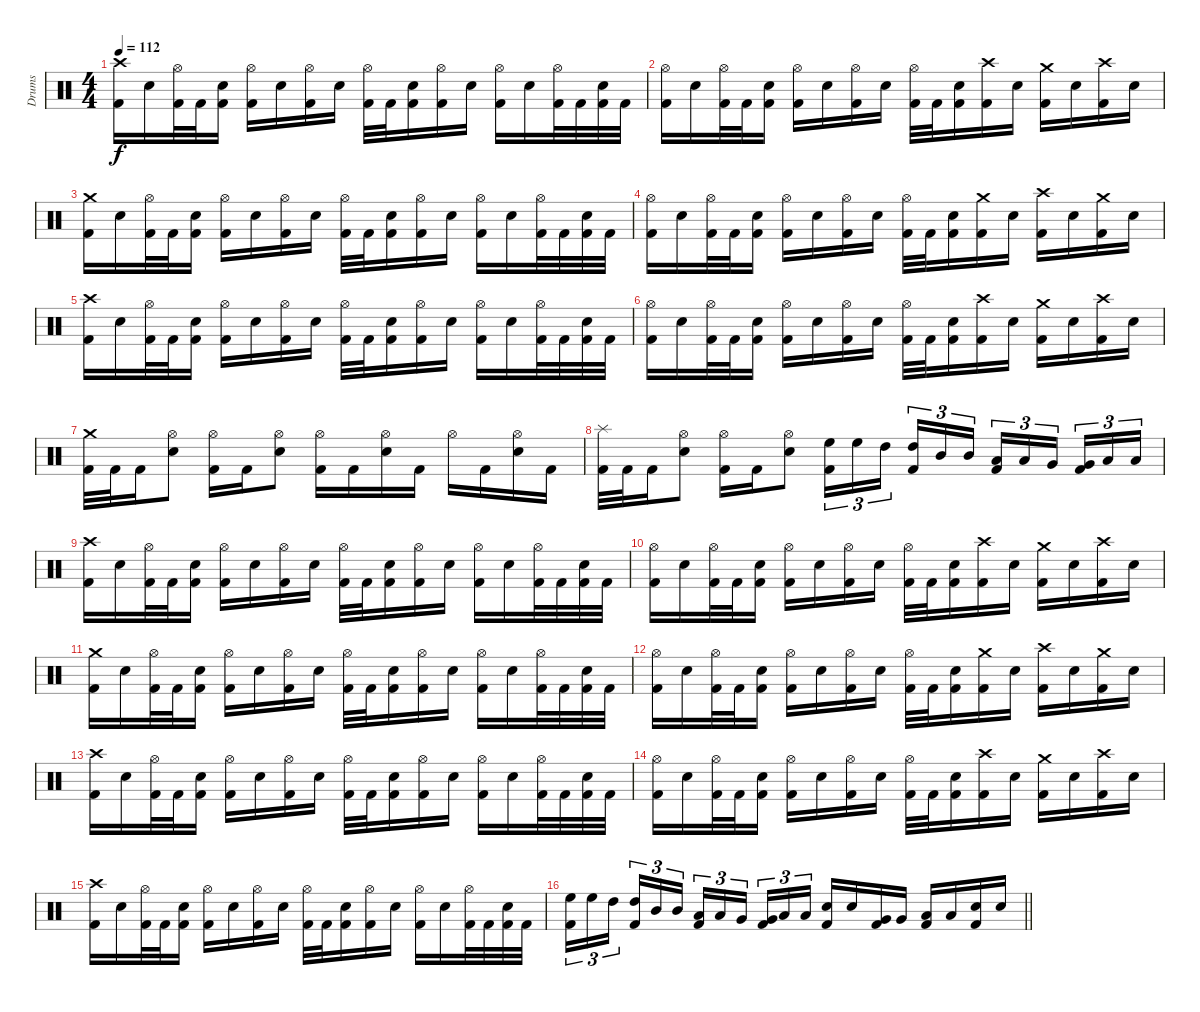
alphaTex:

\track ("Drums" "Drums") {instrument percussion}
\staff {score}
\articulation defaults
\ts (4 4)
\tempo 112
\clef neutral
\ks c
("Crash high (hit)" "Kick (hit) 2").16{dy f} "Electric Snare (hit)".16 ("Hi-Hat (open)" "Kick (hit) 2").32 "Kick (hit) 2".32 ("Electric Snare (hit)" "Kick (hit) 2").16 ("Hi-Hat (open)" "Kick (hit) 2").16 "Electric Snare (hit)".16 ("Hi-Hat (open)" "Kick (hit) 2").16 "Electric Snare (hit)".16 ("Hi-Hat (open)" "Kick (hit) 2").32 "Kick (hit) 2".32 ("Electric Snare (hit)" "Kick (hit) 2").16 ("Hi-Hat (open)" "Kick (hit) 2").16 "Electric Snare (hit)".16 ("Hi-Hat (open)" "Kick (hit) 2").16 "Electric Snare (hit)".16 ("Hi-Hat (open)" "Kick (hit) 2").32 "Kick (hit) 2".32 ("Electric Snare (hit)" "Kick (hit) 2").32 "Kick (hit) 2".32 |
("Hi-Hat (open)" "Kick (hit) 2").16 "Electric Snare (hit)".16 ("Hi-Hat (open)" "Kick (hit) 2").32 "Kick (hit) 2".32 ("Electric Snare (hit)" "Kick (hit) 2").16 ("Hi-Hat (open)" "Kick (hit) 2").16 "Electric Snare (hit)".16 ("Hi-Hat (open)" "Kick (hit) 2").16 "Electric Snare (hit)".16 ("Hi-Hat (open)" "Kick (hit) 2").32 "Kick (hit) 2".32 ("Electric Snare (hit)" "Kick (hit) 2").16 ("Crash high (hit)" "Kick (hit) 2").16 "Electric Snare (hit)".16 ("Crash medium (hit)" "Kick (hit) 2").16 "Electric Snare (hit)".16 ("Crash high (hit)" "Kick (hit) 2").16 "Electric Snare (hit)".16 |
("Crash medium (hit)" "Kick (hit) 2").16 "Electric Snare (hit)".16 ("Hi-Hat (open)" "Kick (hit) 2").32 "Kick (hit) 2".32 ("Electric Snare (hit)" "Kick (hit) 2").16 ("Hi-Hat (open)" "Kick (hit) 2").16 "Electric Snare (hit)".16 ("Hi-Hat (open)" "Kick (hit) 2").16 "Electric Snare (hit)".16 ("Hi-Hat (open)" "Kick (hit) 2").32 "Kick (hit) 2".32 ("Electric Snare (hit)" "Kick (hit) 2").16 ("Hi-Hat (open)" "Kick (hit) 2").16 "Electric Snare (hit)".16 ("Hi-Hat (open)" "Kick (hit) 2").16 "Electric Snare (hit)".16 ("Hi-Hat (open)" "Kick (hit) 2").32 "Kick (hit) 2".32 ("Electric Snare (hit)" "Kick (hit) 2").32 "Kick (hit) 2".32 |
("Hi-Hat (open)" "Kick (hit) 2").16 "Electric Snare (hit)".16 ("Hi-Hat (open)" "Kick (hit) 2").32 "Kick (hit) 2".32 ("Electric Snare (hit)" "Kick (hit) 2").16 ("Hi-Hat (open)" "Kick (hit) 2").16 "Electric Snare (hit)".16 ("Hi-Hat (open)" "Kick (hit) 2").16 "Electric Snare (hit)".16 ("Hi-Hat (open)" "Kick (hit) 2").32 "Kick (hit) 2".32 ("Electric Snare (hit)" "Kick (hit) 2").16 ("Crash medium (hit)" "Kick (hit) 2").16 "Electric Snare (hit)".16 ("Crash high (hit)" "Kick (hit) 2").16 "Electric Snare (hit)".16 ("Crash medium (hit)" "Kick (hit) 2").16 "Electric Snare (hit)".16 |
("Crash high (hit)" "Kick (hit) 2").16 "Electric Snare (hit)".16 ("Hi-Hat (open)" "Kick (hit) 2").32 "Kick (hit) 2".32 ("Electric Snare (hit)" "Kick (hit) 2").16 ("Hi-Hat (open)" "Kick (hit) 2").16 "Electric Snare (hit)".16 ("Hi-Hat (open)" "Kick (hit) 2").16 "Electric Snare (hit)".16 ("Hi-Hat (open)" "Kick (hit) 2").32 "Kick (hit) 2".32 ("Electric Snare (hit)" "Kick (hit) 2").16 ("Hi-Hat (open)" "Kick (hit) 2").16 "Electric Snare (hit)".16 ("Hi-Hat (open)" "Kick (hit) 2").16 "Electric Snare (hit)".16 ("Hi-Hat (open)" "Kick (hit) 2").32 "Kick (hit) 2".32 ("Electric Snare (hit)" "Kick (hit) 2").32 "Kick (hit) 2".32 |
("Hi-Hat (open)" "Kick (hit) 2").16 "Electric Snare (hit)".16 ("Hi-Hat (open)" "Kick (hit) 2").32 "Kick (hit) 2".32 ("Electric Snare (hit)" "Kick (hit) 2").16 ("Hi-Hat (open)" "Kick (hit) 2").16 "Electric Snare (hit)".16 ("Hi-Hat (open)" "Kick (hit) 2").16 "Electric Snare (hit)".16 ("Hi-Hat (open)" "Kick (hit) 2").32 "Kick (hit) 2".32 ("Electric Snare (hit)" "Kick (hit) 2").16 ("Crash high (hit)" "Kick (hit) 2").16 "Electric Snare (hit)".16 ("Crash medium (hit)" "Kick (hit) 2").16 "Electric Snare (hit)".16 ("Crash high (hit)" "Kick (hit) 2").16 "Electric Snare (hit)".16 |
("Crash medium (hit)" "Kick (hit) 2").32 "Kick (hit) 2".32 "Kick (hit) 2".16 ("Hi-Hat (open)" "Electric Snare (hit)").8 ("Hi-Hat (open)" "Kick (hit) 2").16 "Kick (hit) 2".16 ("Hi-Hat (open)" "Electric Snare (hit)").8 ("Hi-Hat (open)" "Kick (hit) 2").16 "Kick (hit) 2".16 ("Hi-Hat (open)" "Electric Snare (hit)").16 "Kick (hit) 2".16 "Hi-Hat (open)".16 "Kick (hit) 2".16 ("Hi-Hat (open)" "Electric Snare (hit)").16 "Kick (hit) 2".16 |
("Splash (hit)" "Kick (hit) 2").32 "Kick (hit) 2".32 "Kick (hit) 2".16 ("Hi-Hat (open)" "Electric Snare (hit)").8 ("Hi-Hat (open)" "Kick (hit) 2").16 "Kick (hit) 2".16 ("Hi-Hat (open)" "Electric Snare (hit)").8 ("High Floor Tom (hit)" "Kick (hit) 2").16{tu (3 2)} "High Floor Tom (hit)".16{tu (3 2)} "High Tom (hit)".16{tu (3 2) beam splitsecondary} ("High Tom (hit)" "Kick (hit) 2").16{tu (3 2)} "Mid Tom (hit)".16{tu (3 2)} "Mid Tom (hit)".16{tu (3 2)} ("Low Tom (hit)" "Kick (hit) 2").16{tu (3 2)} "Low Tom (hit)".16{tu (3 2)} "Very Low Tom (hit)".16{tu (3 2) beam splitsecondary} ("Very Low Tom (hit)" "Kick (hit) 2").16{tu (3 2)} "Low Floor Tom (hit)".16{tu (3 2)} "Low Floor Tom (hit)".16{tu (3 2)} |
("Crash high (hit)" "Kick (hit) 2").16 "Electric Snare (hit)".16 ("Hi-Hat (open)" "Kick (hit) 2").32 "Kick (hit) 2".32 ("Electric Snare (hit)" "Kick (hit) 2").16 ("Hi-Hat (open)" "Kick (hit) 2").16 "Electric Snare (hit)".16 ("Hi-Hat (open)" "Kick (hit) 2").16 "Electric Snare (hit)".16 ("Hi-Hat (open)" "Kick (hit) 2").32 "Kick (hit) 2".32 ("Electric Snare (hit)" "Kick (hit) 2").16 ("Hi-Hat (open)" "Kick (hit) 2").16 "Electric Snare (hit)".16 ("Hi-Hat (open)" "Kick (hit) 2").16 "Electric Snare (hit)".16 ("Hi-Hat (open)" "Kick (hit) 2").32 "Kick (hit) 2".32 ("Electric Snare (hit)" "Kick (hit) 2").32 "Kick (hit) 2".32 |
("Hi-Hat (open)" "Kick (hit) 2").16 "Electric Snare (hit)".16 ("Hi-Hat (open)" "Kick (hit) 2").32 "Kick (hit) 2".32 ("Electric Snare (hit)" "Kick (hit) 2").16 ("Hi-Hat (open)" "Kick (hit) 2").16 "Electric Snare (hit)".16 ("Hi-Hat (open)" "Kick (hit) 2").16 "Electric Snare (hit)".16 ("Hi-Hat (open)" "Kick (hit) 2").32 "Kick (hit) 2".32 ("Electric Snare (hit)" "Kick (hit) 2").16 ("Crash high (hit)" "Kick (hit) 2").16 "Electric Snare (hit)".16 ("Crash medium (hit)" "Kick (hit) 2").16 "Electric Snare (hit)".16 ("Crash high (hit)" "Kick (hit) 2").16 "Electric Snare (hit)".16 |
("Crash medium (hit)" "Kick (hit) 2").16 "Electric Snare (hit)".16 ("Hi-Hat (open)" "Kick (hit) 2").32 "Kick (hit) 2".32 ("Electric Snare (hit)" "Kick (hit) 2").16 ("Hi-Hat (open)" "Kick (hit) 2").16 "Electric Snare (hit)".16 ("Hi-Hat (open)" "Kick (hit) 2").16 "Electric Snare (hit)".16 ("Hi-Hat (open)" "Kick (hit) 2").32 "Kick (hit) 2".32 ("Electric Snare (hit)" "Kick (hit) 2").16 ("Hi-Hat (open)" "Kick (hit) 2").16 "Electric Snare (hit)".16 ("Hi-Hat (open)" "Kick (hit) 2").16 "Electric Snare (hit)".16 ("Hi-Hat (open)" "Kick (hit) 2").32 "Kick (hit) 2".32 ("Electric Snare (hit)" "Kick (hit) 2").32 "Kick (hit) 2".32 |
("Hi-Hat (open)" "Kick (hit) 2").16 "Electric Snare (hit)".16 ("Hi-Hat (open)" "Kick (hit) 2").32 "Kick (hit) 2".32 ("Electric Snare (hit)" "Kick (hit) 2").16 ("Hi-Hat (open)" "Kick (hit) 2").16 "Electric Snare (hit)".16 ("Hi-Hat (open)" "Kick (hit) 2").16 "Electric Snare (hit)".16 ("Hi-Hat (open)" "Kick (hit) 2").32 "Kick (hit) 2".32 ("Electric Snare (hit)" "Kick (hit) 2").16 ("Crash medium (hit)" "Kick (hit) 2").16 "Electric Snare (hit)".16 ("Crash high (hit)" "Kick (hit) 2").16 "Electric Snare (hit)".16 ("Crash medium (hit)" "Kick (hit) 2").16 "Electric Snare (hit)".16 |
("Crash high (hit)" "Kick (hit) 2").16 "Electric Snare (hit)".16 ("Hi-Hat (open)" "Kick (hit) 2").32 "Kick (hit) 2".32 ("Electric Snare (hit)" "Kick (hit) 2").16 ("Hi-Hat (open)" "Kick (hit) 2").16 "Electric Snare (hit)".16 ("Hi-Hat (open)" "Kick (hit) 2").16 "Electric Snare (hit)".16 ("Hi-Hat (open)" "Kick (hit) 2").32 "Kick (hit) 2".32 ("Electric Snare (hit)" "Kick (hit) 2").16 ("Hi-Hat (open)" "Kick (hit) 2").16 "Electric Snare (hit)".16 ("Hi-Hat (open)" "Kick (hit) 2").16 "Electric Snare (hit)".16 ("Hi-Hat (open)" "Kick (hit) 2").32 "Kick (hit) 2".32 ("Electric Snare (hit)" "Kick (hit) 2").32 "Kick (hit) 2".32 |
("Hi-Hat (open)" "Kick (hit) 2").16 "Electric Snare (hit)".16 ("Hi-Hat (open)" "Kick (hit) 2").32 "Kick (hit) 2".32 ("Electric Snare (hit)" "Kick (hit) 2").16 ("Hi-Hat (open)" "Kick (hit) 2").16 "Electric Snare (hit)".16 ("Hi-Hat (open)" "Kick (hit) 2").16 "Electric Snare (hit)".16 ("Hi-Hat (open)" "Kick (hit) 2").32 "Kick (hit) 2".32 ("Electric Snare (hit)" "Kick (hit) 2").16 ("Crash high (hit)" "Kick (hit) 2").16 "Electric Snare (hit)".16 ("Crash medium (hit)" "Kick (hit) 2").16 "Electric Snare (hit)".16 ("Crash high (hit)" "Kick (hit) 2").16 "Electric Snare (hit)".16 |
("Crash high (hit)" "Kick (hit) 2").16 "Electric Snare (hit)".16 ("Hi-Hat (open)" "Kick (hit) 2").32 "Kick (hit) 2".32 ("Electric Snare (hit)" "Kick (hit) 2").16 ("Hi-Hat (open)" "Kick (hit) 2").16 "Electric Snare (hit)".16 ("Hi-Hat (open)" "Kick (hit) 2").16 "Electric Snare (hit)".16 ("Hi-Hat (open)" "Kick (hit) 2").32 "Kick (hit) 2".32 ("Electric Snare (hit)" "Kick (hit) 2").16 ("Hi-Hat (open)" "Kick (hit) 2").16 "Electric Snare (hit)".16 ("Hi-Hat (open)" "Kick (hit) 2").16 "Electric Snare (hit)".16 ("Hi-Hat (open)" "Kick (hit) 2").32 "Kick (hit) 2".32 ("Electric Snare (hit)" "Kick (hit) 2").32 "Kick (hit) 2".32 |
\barLineRight lightlight
("High Floor Tom (hit)" "Kick (hit) 2").16{tu (3 2)} "High Floor Tom (hit)".16{tu (3 2)} "High Tom (hit)".16{tu (3 2) beam splitsecondary} ("High Tom (hit)" "Kick (hit) 2").16{tu (3 2)} "Mid Tom (hit)".16{tu (3 2)} "Mid Tom (hit)".16{tu (3 2)} ("Low Tom (hit)" "Kick (hit) 2").16{tu (3 2)} "Low Tom (hit)".16{tu (3 2)} "Very Low Tom (hit)".16{tu (3 2) beam splitsecondary} ("Very Low Tom (hit)" "Kick (hit) 2").16{tu (3 2)} "Low Floor Tom (hit)".16{tu (3 2)} "Low Floor Tom (hit)".16{tu (3 2)} ("Electric Snare (hit)" "Kick (hit) 2").16 "Electric Snare (hit)".16 ("Very Low Tom (hit)" "Kick (hit) 2").16 "Very Low Tom (hit)".16 ("Low Floor Tom (hit)" "Kick (hit) 2").16 "Low Floor Tom (hit)".16 ("Electric Snare (hit)" "Kick (hit) 2").16 "Electric Snare (hit)".16
